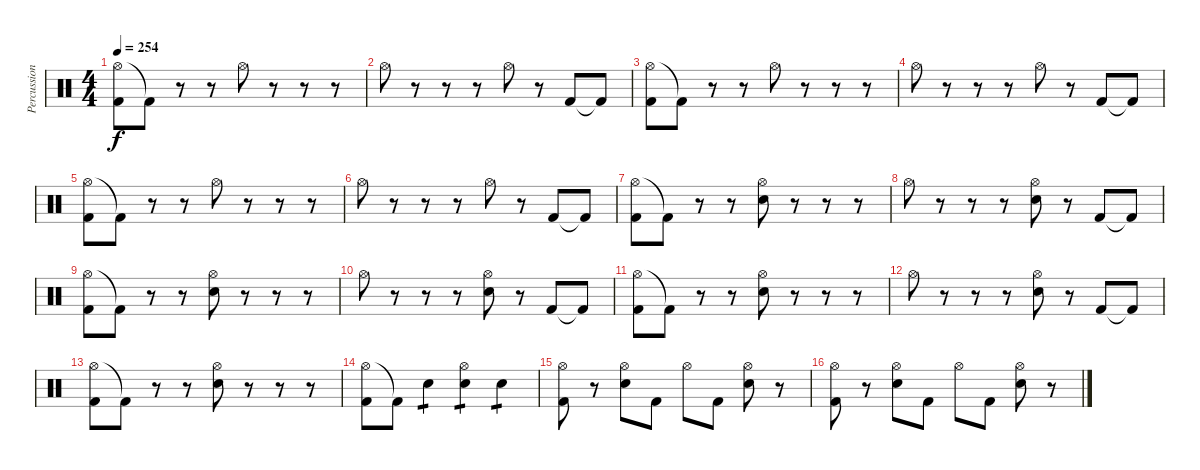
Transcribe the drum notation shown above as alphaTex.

\track ("Percussion" "Percussion") {instrument percussion}
\staff {score}
\articulation defaults
\ts (4 4)
\tempo 254
\clef neutral
\ks c
("Hi-Hat (open)" "Kick (hit) 2").8{dy f} "Kick (hit) 2"{t}.8 r.8 r.8 "Hi-Hat (open)".8 r.8 r.8 r.8 |
"Hi-Hat (open)".8 r.8 r.8 r.8 "Hi-Hat (open)".8 r.8 "Kick (hit) 2".8 "Kick (hit) 2"{t}.8 |
("Hi-Hat (open)" "Kick (hit) 2").8 "Kick (hit) 2"{t}.8 r.8 r.8 "Hi-Hat (open)".8 r.8 r.8 r.8 |
"Hi-Hat (open)".8 r.8 r.8 r.8 "Hi-Hat (open)".8 r.8 "Kick (hit) 2".8 "Kick (hit) 2"{t}.8 |
("Hi-Hat (open)" "Kick (hit) 2").8 "Kick (hit) 2"{t}.8 r.8 r.8 "Hi-Hat (open)".8 r.8 r.8 r.8 |
"Hi-Hat (open)".8 r.8 r.8 r.8 "Hi-Hat (open)".8 r.8 "Kick (hit) 2".8 "Kick (hit) 2"{t}.8 |
("Hi-Hat (open)" "Kick (hit) 2").8 "Kick (hit) 2"{t}.8 r.8 r.8 ("Hi-Hat (open)" "Electric Snare (hit)").8 r.8 r.8 r.8 |
"Hi-Hat (open)".8 r.8 r.8 r.8 ("Hi-Hat (open)" "Electric Snare (hit)").8 r.8 "Kick (hit) 2".8 "Kick (hit) 2"{t}.8 |
("Hi-Hat (open)" "Kick (hit) 2").8 "Kick (hit) 2"{t}.8 r.8 r.8 ("Hi-Hat (open)" "Electric Snare (hit)").8 r.8 r.8 r.8 |
"Hi-Hat (open)".8 r.8 r.8 r.8 ("Hi-Hat (open)" "Electric Snare (hit)").8 r.8 "Kick (hit) 2".8 "Kick (hit) 2"{t}.8 |
("Hi-Hat (open)" "Kick (hit) 2").8 "Kick (hit) 2"{t}.8 r.8 r.8 ("Hi-Hat (open)" "Electric Snare (hit)").8 r.8 r.8 r.8 |
"Hi-Hat (open)".8 r.8 r.8 r.8 ("Hi-Hat (open)" "Electric Snare (hit)").8 r.8 "Kick (hit) 2".8 "Kick (hit) 2"{t}.8 |
("Hi-Hat (open)" "Kick (hit) 2").8 "Kick (hit) 2"{t}.8 r.8 r.8 ("Hi-Hat (open)" "Electric Snare (hit)").8 r.8 r.8 r.8 |
("Hi-Hat (open)" "Kick (hit) 2").8 "Kick (hit) 2"{t}.8 "Electric Snare (hit)".4{tp 1} ("Hi-Hat (open)" "Electric Snare (hit)").4{tp 1} "Electric Snare (hit)".4{tp 1} |
("Hi-Hat (open)" "Kick (hit) 2").8 r.8 ("Hi-Hat (open)" "Electric Snare (hit)").8 "Kick (hit) 2".8 "Hi-Hat (open)".8 "Kick (hit) 2".8 ("Hi-Hat (open)" "Electric Snare (hit)").8 r.8 |
("Hi-Hat (open)" "Kick (hit) 2").8 r.8 ("Hi-Hat (open)" "Electric Snare (hit)").8 "Kick (hit) 2".8 "Hi-Hat (open)".8 "Kick (hit) 2".8 ("Hi-Hat (open)" "Electric Snare (hit)").8 r.8
